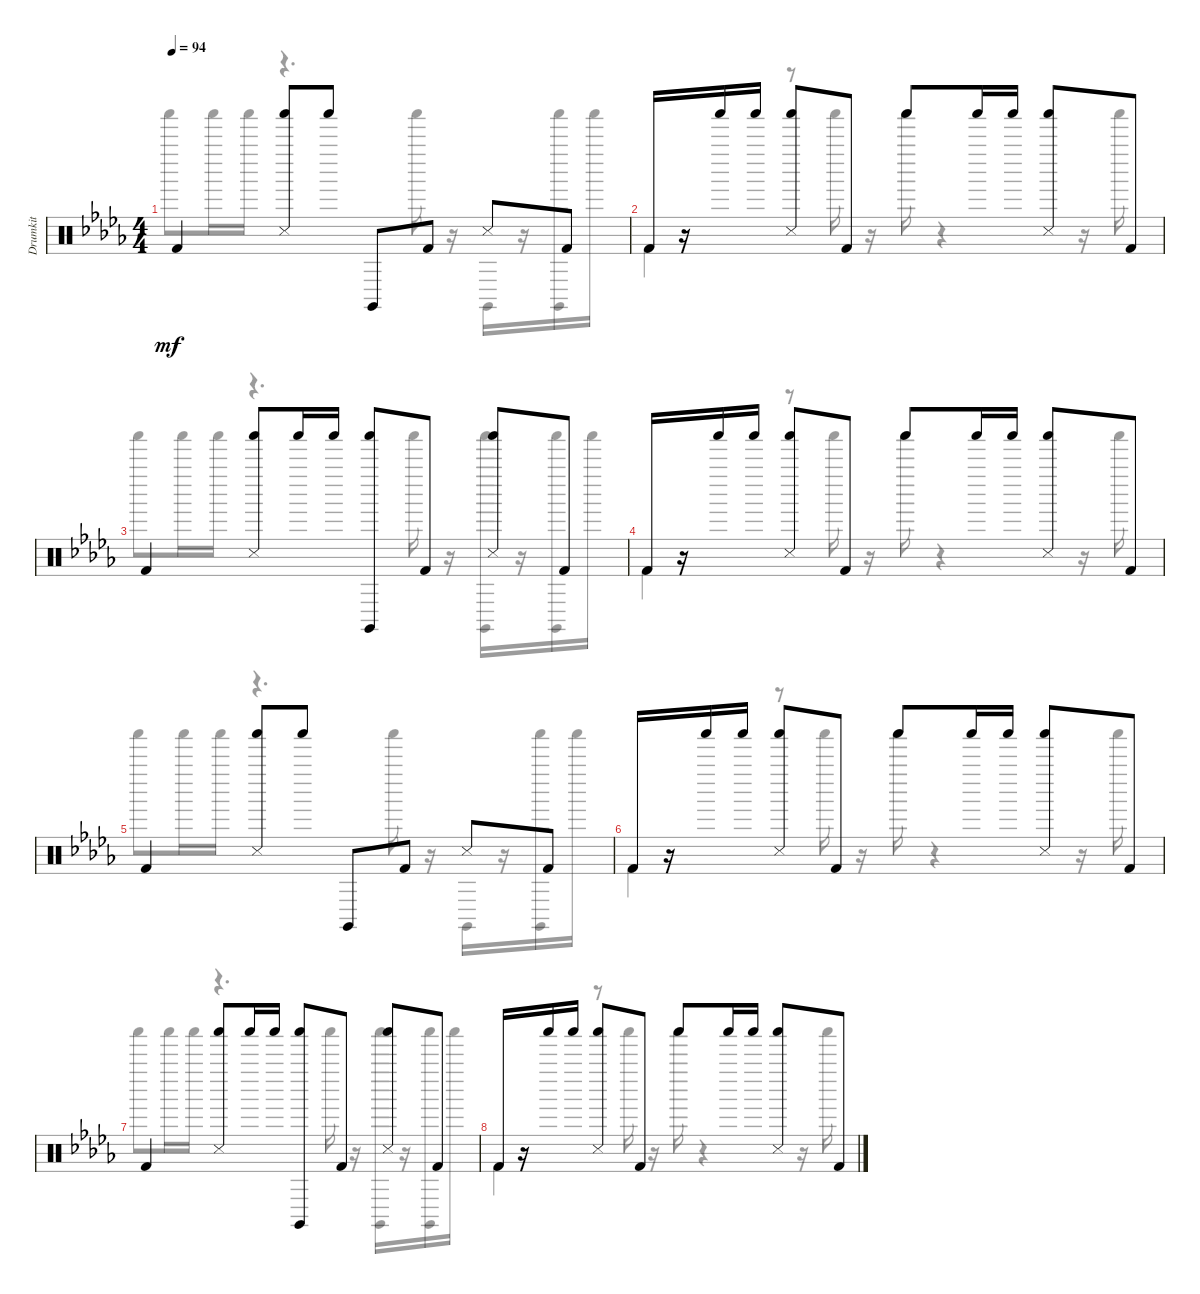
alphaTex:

\track ("Drumkit" "Drumkit") {instrument percussion}
\staff {score}
\articulation defaults
\voice
\ts (4 4)
\tempo 94
\clef neutral
\ks bbminor "Kick (hit) 2".4{dy mf}
("Shaker (hit)" "Snare (side stick) 3").8 "Shaker (hit)".8 "Claves (hit)".8 "Kick (hit) 2".8 "Snare (side stick) 3".8 "Kick (hit) 2".8 |
"Kick (hit) 2".16 r.16 "Shaker (hit)".16 "Shaker (hit)".16 ("Snare (side stick) 3" "Shaker (hit)").8 "Kick (hit) 2".8 "Shaker (hit)".8 "Shaker (hit)".16 "Shaker (hit)".16 ("Shaker (hit)" "Snare (side stick) 3").8 "Kick (hit) 2".8 |
"Kick (hit) 2".4 ("Shaker (hit)" "Snare (side stick) 3").8 "Shaker (hit)".16 "Shaker (hit)".16 ("Claves (hit)" "Shaker (hit)").8 "Kick (hit) 2".8 ("Shaker (hit)" "Snare (side stick) 3").8 "Kick (hit) 2".8 |
"Kick (hit) 2".16 r.16 "Shaker (hit)".16 "Shaker (hit)".16 ("Snare (side stick) 3" "Shaker (hit)").8 "Kick (hit) 2".8 "Shaker (hit)".8 "Shaker (hit)".16 "Shaker (hit)".16 ("Shaker (hit)" "Snare (side stick) 3").8 "Kick (hit) 2".8 |
"Kick (hit) 2".4 ("Snare (side stick) 3" "Shaker (hit)").8 "Shaker (hit)".8 "Claves (hit)".8 "Kick (hit) 2".8 "Snare (side stick) 3".8 "Kick (hit) 2".8 |
"Kick (hit) 2".16 r.16 "Shaker (hit)".16 "Shaker (hit)".16 ("Shaker (hit)" "Snare (side stick) 3").8 "Kick (hit) 2".8 "Shaker (hit)".8 "Shaker (hit)".16 "Shaker (hit)".16 ("Shaker (hit)" "Snare (side stick) 3").8 "Kick (hit) 2".8 |
"Kick (hit) 2".4 ("Snare (side stick) 3" "Shaker (hit)").8 "Shaker (hit)".16 "Shaker (hit)".16 ("Claves (hit)" "Shaker (hit)").8 "Kick (hit) 2".8 ("Snare (side stick) 3" "Shaker (hit)").8 "Kick (hit) 2".8 |
"Kick (hit) 2".16 r.16 "Shaker (hit)".16 "Shaker (hit)".16 ("Shaker (hit)" "Snare (side stick) 3").8 "Kick (hit) 2".8 "Shaker (hit)".8 "Shaker (hit)".16 "Shaker (hit)".16 ("Snare (side stick) 3" "Shaker (hit)").8 "Kick (hit) 2".8
\voice
\clef neutral
\ottava regular
\simile none
\ks bbminor "Shaker (hit)".8{dy mf} "Shaker (hit)".16 "Shaker (hit)".16
r.4{d} "Shaker (hit)".16 r.16 "Claves (hit)".16 r.16 ("Shaker (hit)" "Claves (hit)").16 "Shaker (hit)".16 |
"Kick (hit) 2".4 r.8 "Shaker (hit)".16 r.16 "Shaker (hit)".16 r.4 r.16 "Shaker (hit)".16 |
"Shaker (hit)".8 "Shaker (hit)".16 "Shaker (hit)".16 r.4{d} "Shaker (hit)".16 r.16 ("Shaker (hit)" "Claves (hit)").16 r.16 ("Shaker (hit)" "Claves (hit)").16 "Shaker (hit)".16 |
"Kick (hit) 2".4 r.8 "Shaker (hit)".16 r.16 "Shaker (hit)".16 r.4 r.16 "Shaker (hit)".16 |
"Shaker (hit)".8 "Shaker (hit)".16 "Shaker (hit)".16 r.4{d} "Shaker (hit)".16 r.16 "Claves (hit)".16 r.16 ("Claves (hit)" "Shaker (hit)").16 "Shaker (hit)".16 |
"Kick (hit) 2".4 r.8 "Shaker (hit)".16 r.16 "Shaker (hit)".16 r.4 r.16 "Shaker (hit)".16 |
"Shaker (hit)".8 "Shaker (hit)".16 "Shaker (hit)".16 r.4{d} "Shaker (hit)".16 r.16 ("Shaker (hit)" "Claves (hit)").16 r.16 ("Shaker (hit)" "Claves (hit)").16 "Shaker (hit)".16 |
"Kick (hit) 2".4 r.8 "Shaker (hit)".16 r.16 "Shaker (hit)".16 r.4 r.16 "Shaker (hit)".16
